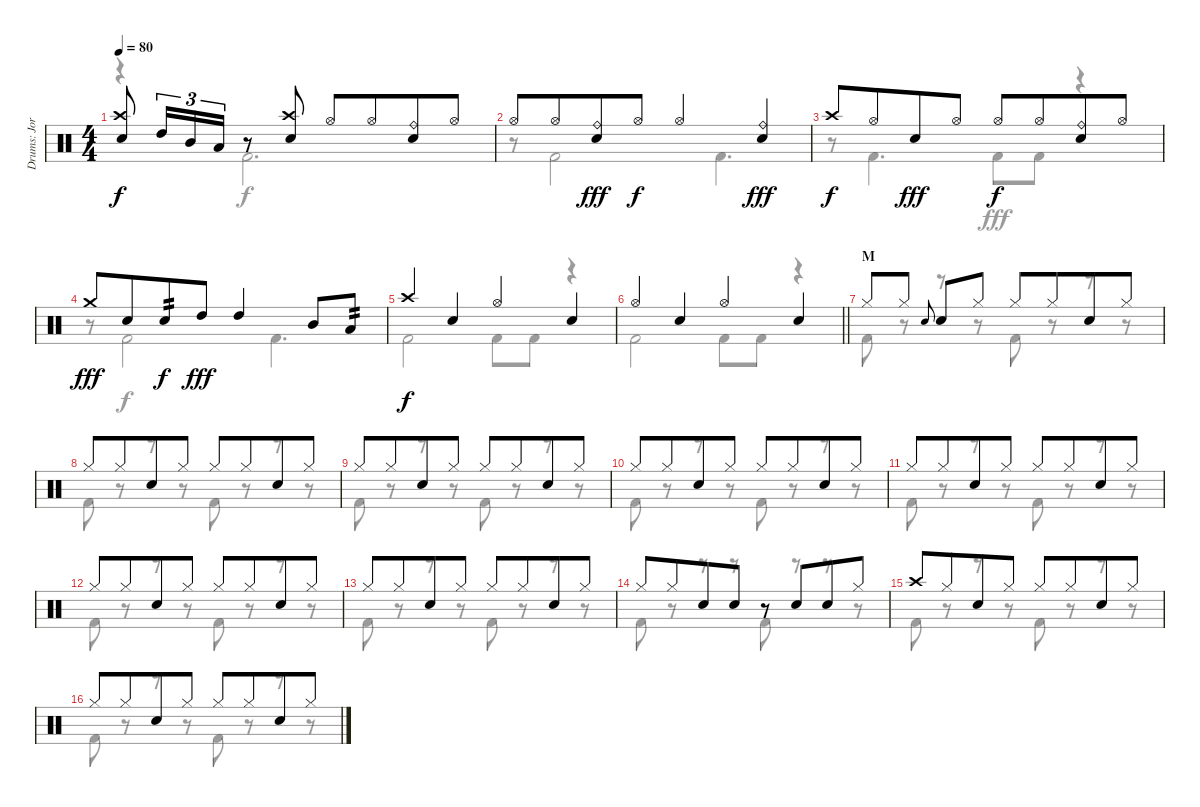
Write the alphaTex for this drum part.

\track ("Drums: Jorg" "Drums: Jor") {instrument percussion}
\staff {score}
\articulation defaults
\voice
\ts (4 4)
\tempo 80
\clef neutral
\ks c
("Crash high (hit)" "Snare (hit) 2").8{dy f} "High Tom (hit)".16{tu (3 2)} "Mid Tom (hit)".16{tu (3 2)} "Low Tom (hit)".16{tu (3 2)} r.8 ("Crash high (hit)" "Snare (hit) 2").8 "Hi-Hat (open)".8 "Hi-Hat (open)".8{beam merge} ("Ride (bell)" "Snare (hit) 2").8 "Hi-Hat (open)".8 |
"Hi-Hat (open)".8 "Hi-Hat (open)".8{beam merge} ("Ride (bell)" "Snare (hit) 2").8{dy fff} "Hi-Hat (open)".8{dy f} "Hi-Hat (open)".4 ("Ride (bell)" "Snare (hit) 2").4{dy fff} |
"Crash high (hit)".8{dy f} "Hi-Hat (open)".8{beam merge} "Snare (hit) 2".8{dy fff} "Hi-Hat (open)".8 "Hi-Hat (open)".8{dy f} "Hi-Hat (open)".8{beam merge} ("Ride (bell)" "Snare (hit) 2").8 "Hi-Hat (open)".8 |
"Crash medium (hit)".8{dy fff} "Snare (hit) 2".8{beam merge} "Electric Snare (hit)".8{tp 2 dy f} "High Tom (hit)".8{dy fff} "High Tom (hit)".4 "Mid Tom (hit)".8 "Low Tom (hit)".8{tp 2} |
"Crash high (hit)".4{dy f} "Snare (hit) 2".4 "Hi-Hat (open)".4 "Snare (hit) 2".4 |
\barLineRight lightlight "Hi-Hat (open)".4 "Snare (hit) 2".4 "Hi-Hat (open)".4 "Snare (hit) 2".4
|
\section ("" "M")
"Hi-Hat (closed)".8 "Hi-Hat (closed)".8 "Electric Snare (hit)".8{gr onbeat beam merge} "Snare (hit) 2".8 "Hi-Hat (closed)".8 "Hi-Hat (closed)".8 "Hi-Hat (closed)".8{beam merge} "Snare (hit) 2".8 "Hi-Hat (closed)".8 |
"Hi-Hat (closed)".8 "Hi-Hat (closed)".8{beam merge} "Snare (hit) 2".8 "Hi-Hat (closed)".8 "Hi-Hat (closed)".8 "Hi-Hat (closed)".8{beam merge} "Snare (hit) 2".8 "Hi-Hat (closed)".8 |
"Hi-Hat (closed)".8 "Hi-Hat (closed)".8{beam merge} "Snare (hit) 2".8 "Hi-Hat (closed)".8 "Hi-Hat (closed)".8 "Hi-Hat (closed)".8{beam merge} "Snare (hit) 2".8 "Hi-Hat (closed)".8 |
"Hi-Hat (closed)".8 "Hi-Hat (closed)".8{beam merge} "Snare (hit) 2".8 "Hi-Hat (closed)".8 "Hi-Hat (closed)".8 "Hi-Hat (closed)".8{beam merge} "Snare (hit) 2".8 "Hi-Hat (closed)".8 |
"Hi-Hat (closed)".8 "Hi-Hat (closed)".8{beam merge} "Snare (hit) 2".8 "Hi-Hat (closed)".8 "Hi-Hat (closed)".8 "Hi-Hat (closed)".8{beam merge} "Snare (hit) 2".8 "Hi-Hat (closed)".8 |
"Hi-Hat (closed)".8 "Hi-Hat (closed)".8{beam merge} "Snare (hit) 2".8 "Hi-Hat (closed)".8 "Hi-Hat (closed)".8 "Hi-Hat (closed)".8{beam merge} "Snare (hit) 2".8 "Hi-Hat (closed)".8 |
"Hi-Hat (closed)".8 "Hi-Hat (closed)".8{beam merge} "Snare (hit) 2".8 "Hi-Hat (closed)".8 "Hi-Hat (closed)".8 "Hi-Hat (closed)".8{beam merge} "Snare (hit) 2".8 "Hi-Hat (closed)".8 |
"Hi-Hat (closed)".8 "Hi-Hat (closed)".8{beam merge} "Electric Snare (hit)".8 "Electric Snare (hit)".8 r.8 "Electric Snare (hit)".8{beam merge} "Electric Snare (hit)".8 "Hi-Hat (closed)".8 |
"Crash high (hit)".8 "Hi-Hat (closed)".8{beam merge} "Snare (hit) 2".8 "Hi-Hat (closed)".8 "Hi-Hat (closed)".8 "Hi-Hat (closed)".8{beam merge} "Snare (hit) 2".8 "Hi-Hat (closed)".8 |
"Hi-Hat (closed)".8 "Hi-Hat (closed)".8{beam merge} "Snare (hit) 2".8 "Hi-Hat (closed)".8 "Hi-Hat (closed)".8 "Hi-Hat (closed)".8{beam merge} "Snare (hit) 2".8 "Hi-Hat (closed)".8
\voice
\clef neutral
\ottava regular
\simile none
\ks c
r.4{dy f} "Kick (hit) 2".2{d} |
r.8 "Kick (hit) 2".2 "Kick (hit) 2".4{d} |
r.8 "Kick (hit) 2".4{d} "Kick (hit) 2".8{dy fff} "Kick (hit) 2".8 r.4 |
r.8 "Kick (hit) 2".2{dy f} "Kick (hit) 2".4{d} |
"Kick (hit) 2".2 "Kick (hit) 2".8 "Kick (hit) 2".8 r.4 |
\barLineRight lightlight "Kick (hit) 2".2 "Kick (hit) 2".8 "Kick (hit) 2".8
r.4 |
"Kick (hit) 2".8 r.8 r.8 r.8 "Kick (hit) 2".8 r.8 r.8 r.8 |
"Kick (hit) 2".8 r.8 r.8 r.8 "Kick (hit) 2".8 r.8 r.8 r.8 |
"Kick (hit) 2".8 r.8 r.8 r.8 "Kick (hit) 2".8 r.8 r.8 r.8 |
"Kick (hit) 2".8 r.8 r.8 r.8 "Kick (hit) 2".8 r.8 r.8 r.8 |
"Kick (hit) 2".8 r.8 r.8 r.8 "Kick (hit) 2".8 r.8 r.8 r.8 |
"Kick (hit) 2".8 r.8 r.8 r.8 "Kick (hit) 2".8 r.8 r.8 r.8 |
"Kick (hit) 2".8 r.8 r.8 r.8 "Kick (hit) 2".8 r.8 r.8 r.8 |
"Kick (hit) 2".8 r.8 r.8 r.8 "Kick (hit) 2".8 r.8 r.8 r.8 |
"Kick (hit) 2".8 r.8 r.8 r.8 "Kick (hit) 2".8 r.8 r.8 r.8 |
"Kick (hit) 2".8 r.8 r.8 r.8 "Kick (hit) 2".8 r.8 r.8 r.8
